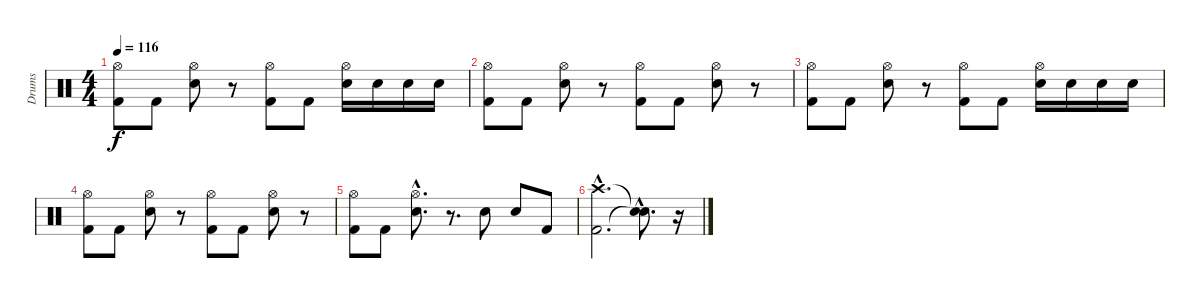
\track ("Drums" "Drums") {instrument percussion}
\staff {score}
\articulation defaults
\ts (4 4)
\tempo 116
\clef neutral
\ks c
("Kick (hit) 2" "Hi-Hat (open)").8{dy f} "Kick (hit) 2".8 ("Snare (hit) 2" "Hi-Hat (open)").8 r.8 ("Kick (hit) 2" "Hi-Hat (open)").8 "Kick (hit) 2".8 ("Snare (hit) 2" "Hi-Hat (open)").16 "Snare (hit) 2".16 "Snare (hit) 2".16 "Snare (hit) 2".16 |
("Kick (hit) 2" "Hi-Hat (open)").8 "Kick (hit) 2".8 ("Snare (hit) 2" "Hi-Hat (open)").8 r.8 ("Kick (hit) 2" "Hi-Hat (open)").8 "Kick (hit) 2".8 ("Snare (hit) 2" "Hi-Hat (open)").8 r.8 |
("Kick (hit) 2" "Hi-Hat (open)").8 "Kick (hit) 2".8 ("Snare (hit) 2" "Hi-Hat (open)").8 r.8 ("Kick (hit) 2" "Hi-Hat (open)").8 "Kick (hit) 2".8 ("Snare (hit) 2" "Hi-Hat (open)").16 "Snare (hit) 2".16 "Snare (hit) 2".16 "Snare (hit) 2".16 |
("Kick (hit) 2" "Hi-Hat (open)").8 "Kick (hit) 2".8 ("Snare (hit) 2" "Hi-Hat (open)").8 r.8 ("Kick (hit) 2" "Hi-Hat (open)").8 "Kick (hit) 2".8 ("Snare (hit) 2" "Hi-Hat (open)").8 r.8 |
("Kick (hit) 2" "Hi-Hat (open)").8 "Kick (hit) 2".8 ("Snare (hit) 2"{hac} "Hi-Hat (open)"{hac}).8{d} r.8{d} "Snare (hit) 2".8 "Snare (hit) 2".8 "Kick (hit) 2".8 |
("Kick (hit) 2"{hac} "Crash high (hit)"{hac}).2{d} ("Snare (hit)"{hac t} "Snare (hit)"{hac t}).8{d} r.16
